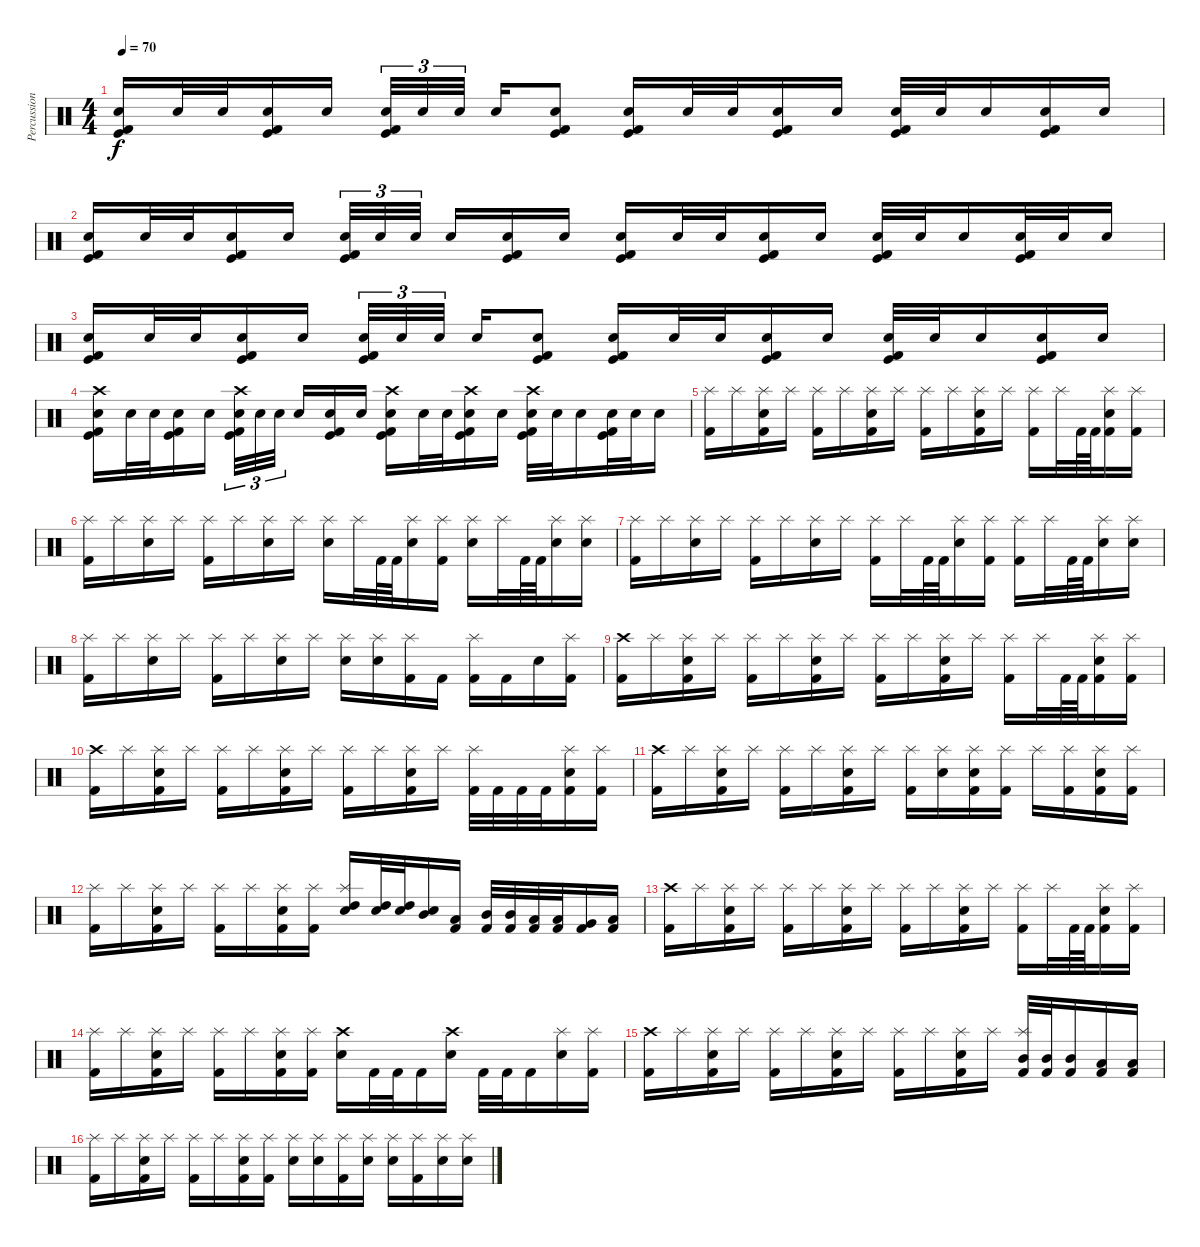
\track ("Percussion" "Percussion") {instrument percussion}
\staff {score}
\articulation defaults
\ts (4 4)
\tempo 70
\clef neutral
\ks c
("Snare (hit) 2" "Kick (hit) 2" "Kick (hit)").16{dy f} "Snare (hit) 2".32 "Snare (hit) 2".32 ("Snare (hit) 2" "Kick (hit) 2" "Kick (hit)").16 "Snare (hit) 2".16 ("Snare (hit) 2" "Kick (hit) 2" "Kick (hit)").32{tu (3 2)} "Snare (hit) 2".32{tu (3 2)} "Snare (hit) 2".32{tu (3 2)} "Snare (hit) 2".16 ("Snare (hit) 2" "Kick (hit) 2" "Kick (hit)").8 ("Snare (hit) 2" "Kick (hit) 2" "Kick (hit)").16 "Snare (hit) 2".32 "Snare (hit) 2".32 ("Snare (hit) 2" "Kick (hit) 2" "Kick (hit)").16 "Snare (hit) 2".16 ("Snare (hit) 2" "Kick (hit) 2" "Kick (hit)").32 "Snare (hit) 2".32 "Snare (hit) 2".16 ("Snare (hit) 2" "Kick (hit) 2" "Kick (hit)").16 "Snare (hit) 2".16 |
("Snare (hit) 2" "Kick (hit) 2" "Kick (hit)").16 "Snare (hit) 2".32 "Snare (hit) 2".32 ("Snare (hit) 2" "Kick (hit) 2" "Kick (hit)").16 "Snare (hit) 2".16 ("Snare (hit) 2" "Kick (hit) 2" "Kick (hit)").32{tu (3 2)} "Snare (hit) 2".32{tu (3 2)} "Snare (hit) 2".32{tu (3 2)} "Snare (hit) 2".16 ("Snare (hit) 2" "Kick (hit) 2" "Kick (hit)").16 "Snare (hit) 2".16 ("Snare (hit) 2" "Kick (hit) 2" "Kick (hit)").16 "Snare (hit) 2".32 "Snare (hit) 2".32 ("Snare (hit) 2" "Kick (hit) 2" "Kick (hit)").16 "Snare (hit) 2".16 ("Snare (hit) 2" "Kick (hit) 2" "Kick (hit)").32 "Snare (hit) 2".32 "Snare (hit) 2".16 ("Snare (hit) 2" "Kick (hit) 2" "Kick (hit)").32 "Snare (hit) 2".32 "Snare (hit) 2".16 |
("Snare (hit) 2" "Kick (hit) 2" "Kick (hit)").16 "Snare (hit) 2".32 "Snare (hit) 2".32 ("Snare (hit) 2" "Kick (hit) 2" "Kick (hit)").16 "Snare (hit) 2".16 ("Snare (hit) 2" "Kick (hit) 2" "Kick (hit)").32{tu (3 2)} "Snare (hit) 2".32{tu (3 2)} "Snare (hit) 2".32{tu (3 2)} "Snare (hit) 2".16 ("Snare (hit) 2" "Kick (hit) 2" "Kick (hit)").8 ("Snare (hit) 2" "Kick (hit) 2" "Kick (hit)").16 "Snare (hit) 2".32 "Snare (hit) 2".32 ("Snare (hit) 2" "Kick (hit) 2" "Kick (hit)").16 "Snare (hit) 2".16 ("Snare (hit) 2" "Kick (hit) 2" "Kick (hit)").32 "Snare (hit) 2".32 "Snare (hit) 2".16 ("Snare (hit) 2" "Kick (hit) 2" "Kick (hit)").16 "Snare (hit) 2".16 |
("Crash high (hit)" "Snare (hit) 2" "Kick (hit) 2" "Kick (hit)").16 "Snare (hit) 2".32 "Snare (hit) 2".32 ("Snare (hit) 2" "Kick (hit) 2" "Kick (hit)").16 "Snare (hit) 2".16 ("Crash high (hit)" "Snare (hit) 2" "Kick (hit) 2" "Kick (hit)").32{tu (3 2)} "Snare (hit) 2".32{tu (3 2)} "Snare (hit) 2".32{tu (3 2)} "Snare (hit) 2".16 ("Snare (hit) 2" "Kick (hit) 2" "Kick (hit)").16 "Snare (hit) 2".16 ("Crash high (hit)" "Snare (hit) 2" "Kick (hit) 2" "Kick (hit)").16 "Snare (hit) 2".32 "Snare (hit) 2".32 ("Crash high (hit)" "Snare (hit) 2" "Kick (hit) 2" "Kick (hit)").16 "Snare (hit) 2".16 ("Crash high (hit)" "Snare (hit) 2" "Kick (hit) 2" "Kick (hit)").32 "Snare (hit) 2".32 "Snare (hit) 2".16 ("Snare (hit) 2" "Kick (hit) 2" "Kick (hit)").32 "Snare (hit) 2".32 "Snare (hit) 2".16 |
("Splash (hit)" "Kick (hit) 2").16 "Splash (hit)".16 ("Splash (hit)" "Snare (hit) 2" "Kick (hit) 2").16 "Splash (hit)".16 ("Splash (hit)" "Kick (hit) 2").16 "Splash (hit)".16 ("Splash (hit)" "Snare (hit) 2" "Kick (hit) 2").16 "Splash (hit)".16 ("Splash (hit)" "Kick (hit) 2").16 "Splash (hit)".16 ("Splash (hit)" "Snare (hit) 2" "Kick (hit) 2").16 "Splash (hit)".16 ("Splash (hit)" "Kick (hit) 2").16 "Splash (hit)".32 "Kick (hit) 2".64 "Kick (hit) 2".64 ("Splash (hit)" "Snare (hit) 2" "Kick (hit) 2").16 ("Splash (hit)" "Kick (hit) 2").16 |
("Splash (hit)" "Kick (hit) 2").16 "Splash (hit)".16 ("Splash (hit)" "Snare (hit) 2").16 "Splash (hit)".16 ("Splash (hit)" "Kick (hit) 2").16 "Splash (hit)".16 ("Splash (hit)" "Snare (hit) 2").16 "Splash (hit)".16 ("Splash (hit)" "Snare (hit) 2").16 "Splash (hit)".32 "Kick (hit) 2".64 "Kick (hit) 2".64 ("Splash (hit)" "Snare (hit) 2").16 ("Splash (hit)" "Kick (hit) 2").16 ("Splash (hit)" "Snare (hit) 2").16 "Splash (hit)".32 "Kick (hit) 2".64 "Kick (hit) 2".64 ("Splash (hit)" "Snare (hit) 2").16 ("Splash (hit)" "Snare (hit) 2").16 |
("Splash (hit)" "Kick (hit) 2").16 "Splash (hit)".16 ("Splash (hit)" "Snare (hit) 2").16 "Splash (hit)".16 ("Splash (hit)" "Kick (hit) 2").16 "Splash (hit)".16 ("Splash (hit)" "Snare (hit) 2").16 "Splash (hit)".16 ("Splash (hit)" "Kick (hit) 2").16 "Splash (hit)".32 "Kick (hit) 2".64 "Kick (hit) 2".64 ("Splash (hit)" "Snare (hit) 2").16 ("Splash (hit)" "Kick (hit) 2").16 ("Splash (hit)" "Kick (hit) 2").16 "Splash (hit)".32 "Kick (hit) 2".64 "Kick (hit) 2".64 ("Splash (hit)" "Snare (hit) 2").16 ("Splash (hit)" "Snare (hit) 2").16 |
("Splash (hit)" "Kick (hit) 2").16 "Splash (hit)".16 ("Splash (hit)" "Snare (hit) 2").16 "Splash (hit)".16 ("Splash (hit)" "Kick (hit) 2").16 "Splash (hit)".16 ("Splash (hit)" "Snare (hit) 2").16 "Splash (hit)".16 ("Splash (hit)" "Snare (hit) 2").16 ("Splash (hit)" "Snare (hit) 2").16 ("Splash (hit)" "Kick (hit) 2").16 "Kick (hit) 2".16 ("Splash (hit)" "Kick (hit) 2").16 "Kick (hit) 2".16 "Snare (hit) 2".16 ("Splash (hit)" "Kick (hit) 2").16 |
("Crash high (hit)" "Kick (hit) 2").16 "Splash (hit)".16 ("Splash (hit)" "Snare (hit) 2" "Kick (hit) 2").16 "Splash (hit)".16 ("Splash (hit)" "Kick (hit) 2").16 "Splash (hit)".16 ("Splash (hit)" "Snare (hit) 2" "Kick (hit) 2").16 "Splash (hit)".16 ("Splash (hit)" "Kick (hit) 2").16 "Splash (hit)".16 ("Splash (hit)" "Snare (hit) 2" "Kick (hit) 2").16 "Splash (hit)".16 ("Splash (hit)" "Kick (hit) 2").16 "Splash (hit)".32 "Kick (hit) 2".64 "Kick (hit) 2".64 ("Splash (hit)" "Snare (hit) 2" "Kick (hit) 2").16 ("Splash (hit)" "Kick (hit) 2").16 |
("Crash high (hit)" "Kick (hit) 2").16 "Splash (hit)".16 ("Splash (hit)" "Snare (hit) 2" "Kick (hit) 2").16 "Splash (hit)".16 ("Splash (hit)" "Kick (hit) 2").16 "Splash (hit)".16 ("Splash (hit)" "Snare (hit) 2" "Kick (hit) 2").16 "Splash (hit)".16 ("Splash (hit)" "Kick (hit) 2").16 "Splash (hit)".16 ("Splash (hit)" "Snare (hit) 2" "Kick (hit) 2").16 "Splash (hit)".16 ("Splash (hit)" "Kick (hit) 2").32 "Kick (hit) 2".32 "Kick (hit) 2".32 "Kick (hit) 2".32 ("Splash (hit)" "Snare (hit) 2" "Kick (hit) 2").16 ("Splash (hit)" "Kick (hit) 2").16 |
("Crash high (hit)" "Kick (hit) 2").16 "Splash (hit)".16 ("Splash (hit)" "Snare (hit) 2" "Kick (hit) 2").16 "Splash (hit)".16 ("Splash (hit)" "Kick (hit) 2").16 "Splash (hit)".16 ("Splash (hit)" "Snare (hit) 2" "Kick (hit) 2").16 "Splash (hit)".16 ("Splash (hit)" "Kick (hit) 2").16 ("Splash (hit)" "Snare (hit) 2").16 ("Splash (hit)" "Snare (hit) 2" "Kick (hit) 2").16 ("Splash (hit)" "Kick (hit) 2").16 "Splash (hit)".16 ("Splash (hit)" "Kick (hit) 2").16 ("Splash (hit)" "Snare (hit) 2" "Kick (hit) 2").16 ("Splash (hit)" "Kick (hit) 2").16 |
("Splash (hit)" "Kick (hit) 2").16 "Splash (hit)".16 ("Splash (hit)" "Snare (hit) 2" "Kick (hit) 2").16 "Splash (hit)".16 ("Splash (hit)" "Kick (hit) 2").16 "Splash (hit)".16 ("Splash (hit)" "Snare (hit) 2" "Kick (hit) 2").16 ("Splash (hit)" "Kick (hit) 2").16 ("Splash (hit)" "High Tom (hit)" "Snare (hit) 2").16 ("High Tom (hit)" "Snare (hit) 2").32 ("High Tom (hit)" "Snare (hit) 2").32 ("Mid Tom (hit)" "Snare (hit) 2").16 ("Low Tom (hit)" "Kick (hit) 2").16 ("Mid Tom (hit)" "Kick (hit) 2").32 ("Mid Tom (hit)" "Kick (hit) 2").32 ("Low Tom (hit)" "Kick (hit) 2").32 ("Low Tom (hit)" "Kick (hit) 2").32 ("Very Low Tom (hit)" "Kick (hit) 2").16 ("Low Floor Tom (hit)" "Kick (hit) 2").16 |
("Crash high (hit)" "Kick (hit) 2").16 "Splash (hit)".16 ("Splash (hit)" "Snare (hit) 2" "Kick (hit) 2").16 "Splash (hit)".16 ("Splash (hit)" "Kick (hit) 2").16 "Splash (hit)".16 ("Splash (hit)" "Snare (hit) 2" "Kick (hit) 2").16 "Splash (hit)".16 ("Splash (hit)" "Kick (hit) 2").16 "Splash (hit)".16 ("Splash (hit)" "Snare (hit) 2" "Kick (hit) 2").16 "Splash (hit)".16 ("Splash (hit)" "Kick (hit) 2").16 "Splash (hit)".32 "Kick (hit) 2".64 "Kick (hit) 2".64 ("Splash (hit)" "Snare (hit) 2" "Kick (hit) 2").16 ("Splash (hit)" "Kick (hit) 2").16 |
("Splash (hit)" "Kick (hit) 2").16 "Splash (hit)".16 ("Splash (hit)" "Snare (hit) 2" "Kick (hit) 2").16 "Splash (hit)".16 ("Splash (hit)" "Kick (hit) 2").16 "Splash (hit)".16 ("Splash (hit)" "Snare (hit) 2" "Kick (hit) 2").16 ("Splash (hit)" "Kick (hit) 2").16 ("Crash high (hit)" "Snare (hit) 2").16 "Kick (hit) 2".32 "Kick (hit) 2".32 "Kick (hit) 2".16 ("Crash high (hit)" "Snare (hit) 2").16 "Kick (hit) 2".32 "Kick (hit) 2".32 "Kick (hit) 2".16 ("Splash (hit)" "Snare (hit) 2").16 ("Splash (hit)" "Kick (hit) 2").16 |
("Crash high (hit)" "Kick (hit) 2").16 "Splash (hit)".16 ("Splash (hit)" "Snare (hit) 2" "Kick (hit) 2").16 "Splash (hit)".16 ("Splash (hit)" "Kick (hit) 2").16 "Splash (hit)".16 ("Splash (hit)" "Snare (hit) 2" "Kick (hit) 2").16 "Splash (hit)".16 ("Splash (hit)" "Kick (hit) 2").16 "Splash (hit)".16 ("Splash (hit)" "Snare (hit) 2" "Kick (hit) 2").16 "Splash (hit)".16 ("Splash (hit)" "Mid Tom (hit)" "Kick (hit) 2").32 ("Mid Tom (hit)" "Kick (hit) 2").32 ("Mid Tom (hit)" "Kick (hit) 2").16 ("Low Tom (hit)" "Kick (hit) 2").16 ("Low Tom (hit)" "Kick (hit) 2").16 |
("Splash (hit)" "Kick (hit) 2").16 "Splash (hit)".16 ("Splash (hit)" "Snare (hit) 2" "Kick (hit) 2").16 "Splash (hit)".16 ("Splash (hit)" "Kick (hit) 2").16 "Splash (hit)".16 ("Splash (hit)" "Snare (hit) 2" "Kick (hit) 2").16 ("Splash (hit)" "Kick (hit) 2").16 ("Splash (hit)" "Snare (hit) 2").16 ("Splash (hit)" "Snare (hit) 2").16 ("Splash (hit)" "Kick (hit) 2").16 ("Splash (hit)" "Snare (hit) 2").16 ("Splash (hit)" "Snare (hit) 2").16 ("Splash (hit)" "Kick (hit) 2").16 ("Splash (hit)" "Snare (hit) 2").16 ("Splash (hit)" "Snare (hit) 2").16
